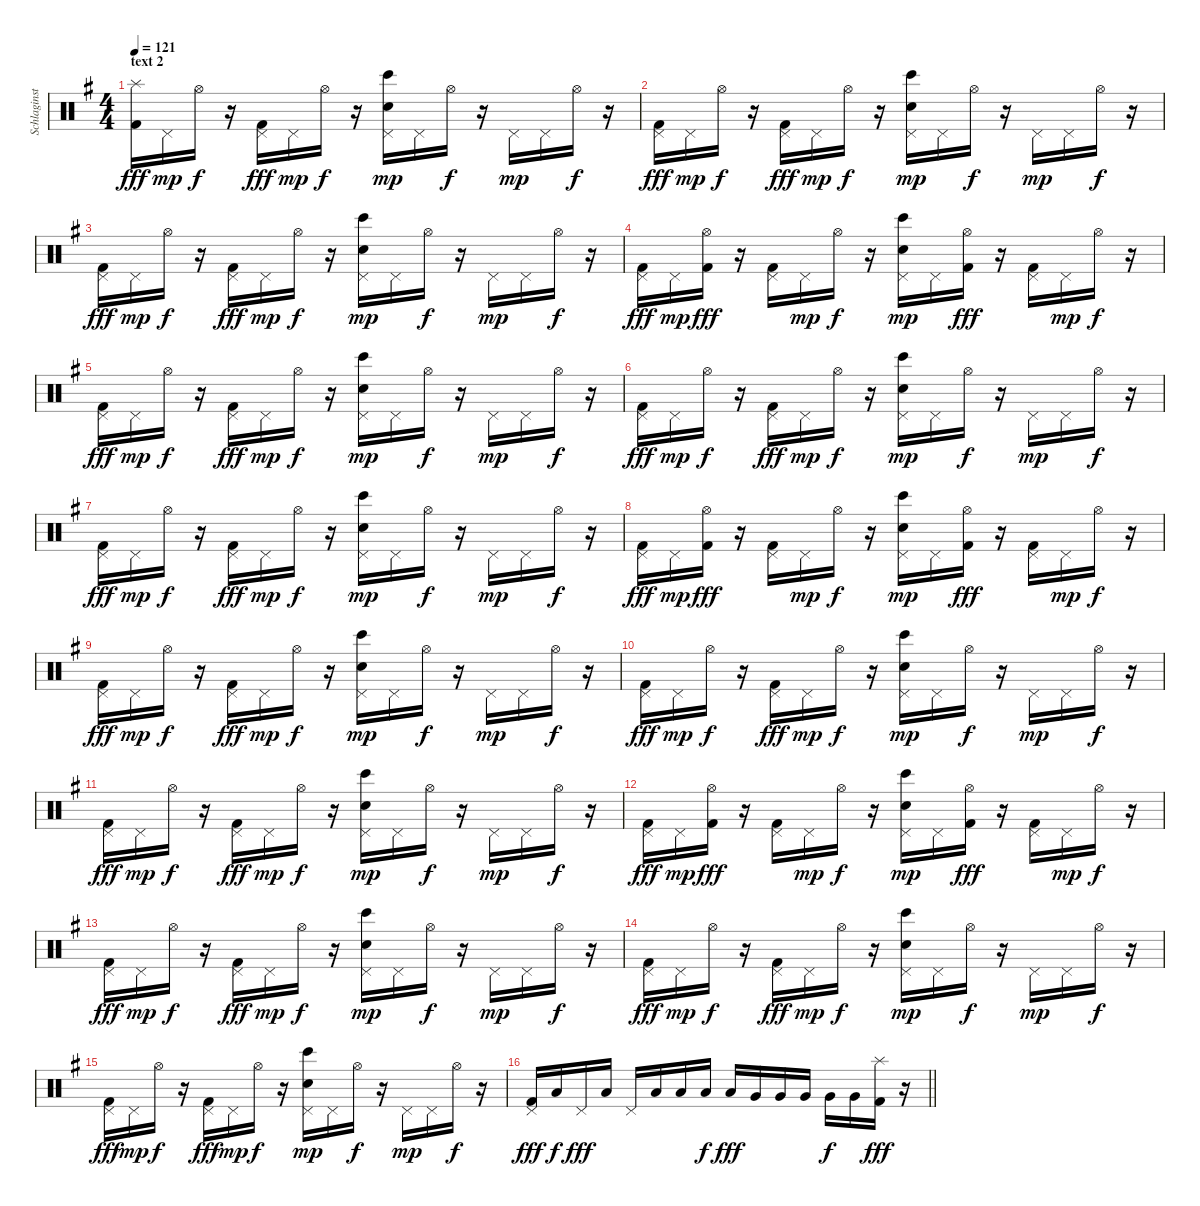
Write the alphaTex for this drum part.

\track ("Schlaginstrumente - Auswahl" "Schlaginst") {instrument percussion}
\staff {score}
\articulation defaults
\ts (4 4)
\section ("" "text 2")
\tempo 121
\clef neutral
\ks g
("Splash (hit)" "Kick (hit) 2").16{dy fff} "Pedal Hi-Hat (hit)".16{dy mp} "Hi-Hat (open)".16{dy f} r.16 ("Pedal Hi-Hat (hit)" "Kick (hit) 2").16{dy fff} "Pedal Hi-Hat (hit)".16{dy mp} "Hi-Hat (open)".16{dy f} r.16 ("Bongo High (hit)" "Pedal Hi-Hat (hit)" "Electric Snare (hit)").16{dy mp} "Pedal Hi-Hat (hit)".16 "Hi-Hat (open)".16{dy f} r.16 "Pedal Hi-Hat (hit)".16{dy mp} "Pedal Hi-Hat (hit)".16 "Hi-Hat (open)".16{dy f} r.16 |
("Pedal Hi-Hat (hit)" "Kick (hit) 2").16{dy fff} "Pedal Hi-Hat (hit)".16{dy mp} "Hi-Hat (open)".16{dy f} r.16 ("Pedal Hi-Hat (hit)" "Kick (hit) 2").16{dy fff} "Pedal Hi-Hat (hit)".16{dy mp} "Hi-Hat (open)".16{dy f} r.16 ("Bongo High (hit)" "Pedal Hi-Hat (hit)" "Electric Snare (hit)").16{dy mp} "Pedal Hi-Hat (hit)".16 "Hi-Hat (open)".16{dy f} r.16 "Pedal Hi-Hat (hit)".16{dy mp} "Pedal Hi-Hat (hit)".16 "Hi-Hat (open)".16{dy f} r.16 |
("Pedal Hi-Hat (hit)" "Kick (hit) 2").16{dy fff} "Pedal Hi-Hat (hit)".16{dy mp} "Hi-Hat (open)".16{dy f} r.16 ("Pedal Hi-Hat (hit)" "Kick (hit) 2").16{dy fff} "Pedal Hi-Hat (hit)".16{dy mp} "Hi-Hat (open)".16{dy f} r.16 ("Bongo High (hit)" "Pedal Hi-Hat (hit)" "Electric Snare (hit)").16{dy mp} "Pedal Hi-Hat (hit)".16 "Hi-Hat (open)".16{dy f} r.16 "Pedal Hi-Hat (hit)".16{dy mp} "Pedal Hi-Hat (hit)".16 "Hi-Hat (open)".16{dy f} r.16 |
("Pedal Hi-Hat (hit)" "Kick (hit) 2").16{dy fff} "Pedal Hi-Hat (hit)".16{dy mp} ("Hi-Hat (open)" "Kick (hit) 2").16{dy fff} r.16 ("Pedal Hi-Hat (hit)" "Kick (hit) 2").16 "Pedal Hi-Hat (hit)".16{dy mp} "Hi-Hat (open)".16{dy f} r.16 ("Bongo High (hit)" "Pedal Hi-Hat (hit)" "Electric Snare (hit)").16{dy mp} "Pedal Hi-Hat (hit)".16 ("Hi-Hat (open)" "Kick (hit) 2").16{dy fff} r.16 ("Pedal Hi-Hat (hit)" "Kick (hit) 2").16 "Pedal Hi-Hat (hit)".16{dy mp} "Hi-Hat (open)".16{dy f} r.16 |
("Pedal Hi-Hat (hit)" "Kick (hit) 2").16{dy fff} "Pedal Hi-Hat (hit)".16{dy mp} "Hi-Hat (open)".16{dy f} r.16 ("Pedal Hi-Hat (hit)" "Kick (hit) 2").16{dy fff} "Pedal Hi-Hat (hit)".16{dy mp} "Hi-Hat (open)".16{dy f} r.16 ("Bongo High (hit)" "Pedal Hi-Hat (hit)" "Electric Snare (hit)").16{dy mp} "Pedal Hi-Hat (hit)".16 "Hi-Hat (open)".16{dy f} r.16 "Pedal Hi-Hat (hit)".16{dy mp} "Pedal Hi-Hat (hit)".16 "Hi-Hat (open)".16{dy f} r.16 |
("Pedal Hi-Hat (hit)" "Kick (hit) 2").16{dy fff} "Pedal Hi-Hat (hit)".16{dy mp} "Hi-Hat (open)".16{dy f} r.16 ("Pedal Hi-Hat (hit)" "Kick (hit) 2").16{dy fff} "Pedal Hi-Hat (hit)".16{dy mp} "Hi-Hat (open)".16{dy f} r.16 ("Bongo High (hit)" "Pedal Hi-Hat (hit)" "Electric Snare (hit)").16{dy mp} "Pedal Hi-Hat (hit)".16 "Hi-Hat (open)".16{dy f} r.16 "Pedal Hi-Hat (hit)".16{dy mp} "Pedal Hi-Hat (hit)".16 "Hi-Hat (open)".16{dy f} r.16 |
("Pedal Hi-Hat (hit)" "Kick (hit) 2").16{dy fff} "Pedal Hi-Hat (hit)".16{dy mp} "Hi-Hat (open)".16{dy f} r.16 ("Pedal Hi-Hat (hit)" "Kick (hit) 2").16{dy fff} "Pedal Hi-Hat (hit)".16{dy mp} "Hi-Hat (open)".16{dy f} r.16 ("Bongo High (hit)" "Pedal Hi-Hat (hit)" "Electric Snare (hit)").16{dy mp} "Pedal Hi-Hat (hit)".16 "Hi-Hat (open)".16{dy f} r.16 "Pedal Hi-Hat (hit)".16{dy mp} "Pedal Hi-Hat (hit)".16 "Hi-Hat (open)".16{dy f} r.16 |
("Pedal Hi-Hat (hit)" "Kick (hit) 2").16{dy fff} "Pedal Hi-Hat (hit)".16{dy mp} ("Hi-Hat (open)" "Kick (hit) 2").16{dy fff} r.16 ("Pedal Hi-Hat (hit)" "Kick (hit) 2").16 "Pedal Hi-Hat (hit)".16{dy mp} "Hi-Hat (open)".16{dy f} r.16 ("Bongo High (hit)" "Pedal Hi-Hat (hit)" "Electric Snare (hit)").16{dy mp} "Pedal Hi-Hat (hit)".16 ("Hi-Hat (open)" "Kick (hit) 2").16{dy fff} r.16 ("Pedal Hi-Hat (hit)" "Kick (hit) 2").16 "Pedal Hi-Hat (hit)".16{dy mp} "Hi-Hat (open)".16{dy f} r.16 |
("Pedal Hi-Hat (hit)" "Kick (hit) 2").16{dy fff} "Pedal Hi-Hat (hit)".16{dy mp} "Hi-Hat (open)".16{dy f} r.16 ("Pedal Hi-Hat (hit)" "Kick (hit) 2").16{dy fff} "Pedal Hi-Hat (hit)".16{dy mp} "Hi-Hat (open)".16{dy f} r.16 ("Bongo High (hit)" "Pedal Hi-Hat (hit)" "Electric Snare (hit)").16{dy mp} "Pedal Hi-Hat (hit)".16 "Hi-Hat (open)".16{dy f} r.16 "Pedal Hi-Hat (hit)".16{dy mp} "Pedal Hi-Hat (hit)".16 "Hi-Hat (open)".16{dy f} r.16 |
("Pedal Hi-Hat (hit)" "Kick (hit) 2").16{dy fff} "Pedal Hi-Hat (hit)".16{dy mp} "Hi-Hat (open)".16{dy f} r.16 ("Pedal Hi-Hat (hit)" "Kick (hit) 2").16{dy fff} "Pedal Hi-Hat (hit)".16{dy mp} "Hi-Hat (open)".16{dy f} r.16 ("Bongo High (hit)" "Pedal Hi-Hat (hit)" "Electric Snare (hit)").16{dy mp} "Pedal Hi-Hat (hit)".16 "Hi-Hat (open)".16{dy f} r.16 "Pedal Hi-Hat (hit)".16{dy mp} "Pedal Hi-Hat (hit)".16 "Hi-Hat (open)".16{dy f} r.16 |
("Pedal Hi-Hat (hit)" "Kick (hit) 2").16{dy fff} "Pedal Hi-Hat (hit)".16{dy mp} "Hi-Hat (open)".16{dy f} r.16 ("Pedal Hi-Hat (hit)" "Kick (hit) 2").16{dy fff} "Pedal Hi-Hat (hit)".16{dy mp} "Hi-Hat (open)".16{dy f} r.16 ("Bongo High (hit)" "Pedal Hi-Hat (hit)" "Electric Snare (hit)").16{dy mp} "Pedal Hi-Hat (hit)".16 "Hi-Hat (open)".16{dy f} r.16 "Pedal Hi-Hat (hit)".16{dy mp} "Pedal Hi-Hat (hit)".16 "Hi-Hat (open)".16{dy f} r.16 |
("Pedal Hi-Hat (hit)" "Kick (hit) 2").16{dy fff} "Pedal Hi-Hat (hit)".16{dy mp} ("Hi-Hat (open)" "Kick (hit) 2").16{dy fff} r.16 ("Pedal Hi-Hat (hit)" "Kick (hit) 2").16 "Pedal Hi-Hat (hit)".16{dy mp} "Hi-Hat (open)".16{dy f} r.16 ("Bongo High (hit)" "Pedal Hi-Hat (hit)" "Electric Snare (hit)").16{dy mp} "Pedal Hi-Hat (hit)".16 ("Hi-Hat (open)" "Kick (hit) 2").16{dy fff} r.16 ("Pedal Hi-Hat (hit)" "Kick (hit) 2").16 "Pedal Hi-Hat (hit)".16{dy mp} "Hi-Hat (open)".16{dy f} r.16 |
("Pedal Hi-Hat (hit)" "Kick (hit) 2").16{dy fff} "Pedal Hi-Hat (hit)".16{dy mp} "Hi-Hat (open)".16{dy f} r.16 ("Pedal Hi-Hat (hit)" "Kick (hit) 2").16{dy fff} "Pedal Hi-Hat (hit)".16{dy mp} "Hi-Hat (open)".16{dy f} r.16 ("Bongo High (hit)" "Pedal Hi-Hat (hit)" "Electric Snare (hit)").16{dy mp} "Pedal Hi-Hat (hit)".16 "Hi-Hat (open)".16{dy f} r.16 "Pedal Hi-Hat (hit)".16{dy mp} "Pedal Hi-Hat (hit)".16 "Hi-Hat (open)".16{dy f} r.16 |
("Pedal Hi-Hat (hit)" "Kick (hit) 2").16{dy fff} "Pedal Hi-Hat (hit)".16{dy mp} "Hi-Hat (open)".16{dy f} r.16 ("Pedal Hi-Hat (hit)" "Kick (hit) 2").16{dy fff} "Pedal Hi-Hat (hit)".16{dy mp} "Hi-Hat (open)".16{dy f} r.16 ("Bongo High (hit)" "Pedal Hi-Hat (hit)" "Electric Snare (hit)").16{dy mp} "Pedal Hi-Hat (hit)".16 "Hi-Hat (open)".16{dy f} r.16 "Pedal Hi-Hat (hit)".16{dy mp} "Pedal Hi-Hat (hit)".16 "Hi-Hat (open)".16{dy f} r.16 |
("Pedal Hi-Hat (hit)" "Kick (hit) 2").16{dy fff} "Pedal Hi-Hat (hit)".16{dy mp} "Hi-Hat (open)".16{dy f} r.16 ("Pedal Hi-Hat (hit)" "Kick (hit) 2").16{dy fff} "Pedal Hi-Hat (hit)".16{dy mp} "Hi-Hat (open)".16{dy f} r.16 ("Bongo High (hit)" "Pedal Hi-Hat (hit)" "Electric Snare (hit)").16{dy mp} "Pedal Hi-Hat (hit)".16 "Hi-Hat (open)".16{dy f} r.16 "Pedal Hi-Hat (hit)".16{dy mp} "Pedal Hi-Hat (hit)".16 "Hi-Hat (open)".16{dy f} r.16 |
\barLineRight lightlight
("Pedal Hi-Hat (hit)" "Kick (hit) 2").16{dy fff} "Low Floor Tom (hit)".16{dy f} "Pedal Hi-Hat (hit)".16{dy fff} "Low Floor Tom (hit)".16 "Pedal Hi-Hat (hit)".16 "Low Tom (hit)".16 "Low Tom (hit)".16 "Low Tom (hit)".16{dy f} "Low Tom (hit)".16{dy fff} "Very Low Tom (hit)".16 "Very Low Tom (hit)".16 "Very Low Tom (hit)".16 "Very Low Tom (hit)".16{dy f} "Very Low Tom (hit)".16 ("Splash (hit)" "Kick (hit) 2").16{dy fff} r.16
